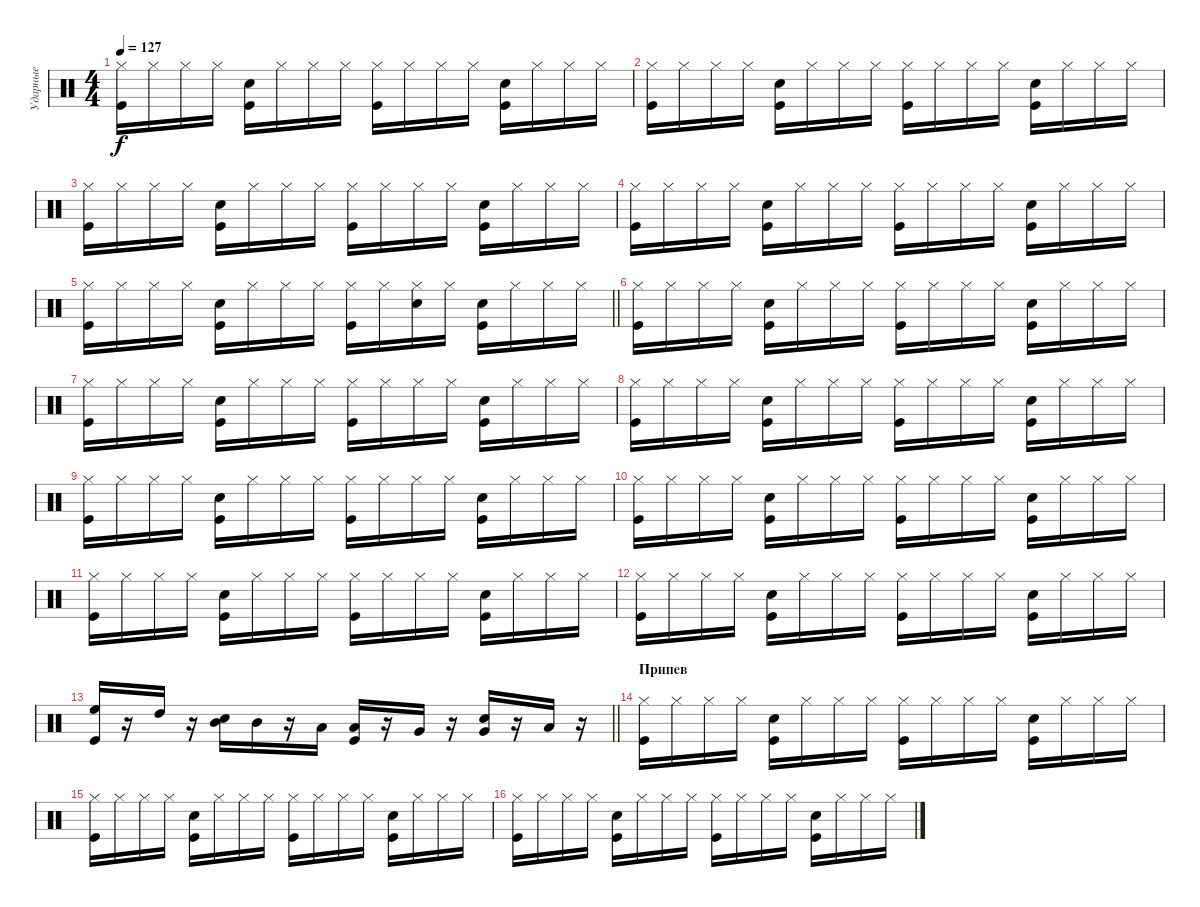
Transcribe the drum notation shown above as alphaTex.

\track ("Ударные" "Ударные") {solo instrument percussion}
\staff {score}
\articulation defaults
\ts (4 4)
\tempo 127
\clef neutral
\ks c
("Hi-Hat (closed)" "Kick (hit)").16{dy f} "Hi-Hat (closed)".16 "Hi-Hat (closed)".16 "Hi-Hat (closed)".16 ("Kick (hit)" "Snare (hit) 2").16 "Hi-Hat (closed)".16 "Hi-Hat (closed)".16 "Hi-Hat (closed)".16 ("Hi-Hat (closed)" "Kick (hit)").16 "Hi-Hat (closed)".16 "Hi-Hat (closed)".16 "Hi-Hat (closed)".16 ("Kick (hit)" "Snare (hit) 2").16 "Hi-Hat (closed)".16 "Hi-Hat (closed)".16 "Hi-Hat (closed)".16 |
("Hi-Hat (closed)" "Kick (hit)").16 "Hi-Hat (closed)".16 "Hi-Hat (closed)".16 "Hi-Hat (closed)".16 ("Kick (hit)" "Snare (hit) 2").16 "Hi-Hat (closed)".16 "Hi-Hat (closed)".16 "Hi-Hat (closed)".16 ("Hi-Hat (closed)" "Kick (hit)").16 "Hi-Hat (closed)".16 "Hi-Hat (closed)".16 "Hi-Hat (closed)".16 ("Kick (hit)" "Snare (hit) 2").16 "Hi-Hat (closed)".16 "Hi-Hat (closed)".16 "Hi-Hat (closed)".16 |
("Hi-Hat (closed)" "Kick (hit)").16 "Hi-Hat (closed)".16 "Hi-Hat (closed)".16 "Hi-Hat (closed)".16 ("Kick (hit)" "Snare (hit) 2").16 "Hi-Hat (closed)".16 "Hi-Hat (closed)".16 "Hi-Hat (closed)".16 ("Hi-Hat (closed)" "Kick (hit)").16 "Hi-Hat (closed)".16 "Hi-Hat (closed)".16 "Hi-Hat (closed)".16 ("Kick (hit)" "Snare (hit) 2").16 "Hi-Hat (closed)".16 "Hi-Hat (closed)".16 "Hi-Hat (closed)".16 |
("Hi-Hat (closed)" "Kick (hit)").16 "Hi-Hat (closed)".16 "Hi-Hat (closed)".16 "Hi-Hat (closed)".16 ("Kick (hit)" "Snare (hit) 2").16 "Hi-Hat (closed)".16 "Hi-Hat (closed)".16 "Hi-Hat (closed)".16 ("Hi-Hat (closed)" "Kick (hit)").16 "Hi-Hat (closed)".16 "Hi-Hat (closed)".16 "Hi-Hat (closed)".16 ("Kick (hit)" "Snare (hit) 2").16 "Hi-Hat (closed)".16 "Hi-Hat (closed)".16 "Hi-Hat (closed)".16 |
\barLineRight lightlight
("Hi-Hat (closed)" "Kick (hit)").16 "Hi-Hat (closed)".16 "Hi-Hat (closed)".16 "Hi-Hat (closed)".16 ("Kick (hit)" "Snare (hit) 2").16 "Hi-Hat (closed)".16 "Hi-Hat (closed)".16 "Hi-Hat (closed)".16 ("Hi-Hat (closed)" "Kick (hit)").16 "Hi-Hat (closed)".16 ("Hi-Hat (closed)" "Snare (hit) 2").16 "Hi-Hat (closed)".16 ("Kick (hit)" "Snare (hit) 2").16 "Hi-Hat (closed)".16 "Hi-Hat (closed)".16 "Hi-Hat (closed)".16 |
\section ("" "")
("Hi-Hat (closed)" "Kick (hit)").16 "Hi-Hat (closed)".16 "Hi-Hat (closed)".16 "Hi-Hat (closed)".16 ("Kick (hit)" "Snare (hit) 2").16 "Hi-Hat (closed)".16 "Hi-Hat (closed)".16 "Hi-Hat (closed)".16 ("Hi-Hat (closed)" "Kick (hit)").16 "Hi-Hat (closed)".16 "Hi-Hat (closed)".16 "Hi-Hat (closed)".16 ("Kick (hit)" "Snare (hit) 2").16 "Hi-Hat (closed)".16 "Hi-Hat (closed)".16 "Hi-Hat (closed)".16 |
("Hi-Hat (closed)" "Kick (hit)").16 "Hi-Hat (closed)".16 "Hi-Hat (closed)".16 "Hi-Hat (closed)".16 ("Kick (hit)" "Snare (hit) 2").16 "Hi-Hat (closed)".16 "Hi-Hat (closed)".16 "Hi-Hat (closed)".16 ("Hi-Hat (closed)" "Kick (hit)").16 "Hi-Hat (closed)".16 "Hi-Hat (closed)".16 "Hi-Hat (closed)".16 ("Kick (hit)" "Snare (hit) 2").16 "Hi-Hat (closed)".16 "Hi-Hat (closed)".16 "Hi-Hat (closed)".16 |
("Hi-Hat (closed)" "Kick (hit)").16 "Hi-Hat (closed)".16 "Hi-Hat (closed)".16 "Hi-Hat (closed)".16 ("Kick (hit)" "Snare (hit) 2").16 "Hi-Hat (closed)".16 "Hi-Hat (closed)".16 "Hi-Hat (closed)".16 ("Hi-Hat (closed)" "Kick (hit)").16 "Hi-Hat (closed)".16 "Hi-Hat (closed)".16 "Hi-Hat (closed)".16 ("Kick (hit)" "Snare (hit) 2").16 "Hi-Hat (closed)".16 "Hi-Hat (closed)".16 "Hi-Hat (closed)".16 |
("Hi-Hat (closed)" "Kick (hit)").16 "Hi-Hat (closed)".16 "Hi-Hat (closed)".16 "Hi-Hat (closed)".16 ("Kick (hit)" "Snare (hit) 2").16 "Hi-Hat (closed)".16 "Hi-Hat (closed)".16 "Hi-Hat (closed)".16 ("Hi-Hat (closed)" "Kick (hit)").16 "Hi-Hat (closed)".16 "Hi-Hat (closed)".16 "Hi-Hat (closed)".16 ("Kick (hit)" "Snare (hit) 2").16 "Hi-Hat (closed)".16 "Hi-Hat (closed)".16 "Hi-Hat (closed)".16 |
("Hi-Hat (closed)" "Kick (hit)").16 "Hi-Hat (closed)".16 "Hi-Hat (closed)".16 "Hi-Hat (closed)".16 ("Kick (hit)" "Snare (hit) 2").16 "Hi-Hat (closed)".16 "Hi-Hat (closed)".16 "Hi-Hat (closed)".16 ("Hi-Hat (closed)" "Kick (hit)").16 "Hi-Hat (closed)".16 "Hi-Hat (closed)".16 "Hi-Hat (closed)".16 ("Kick (hit)" "Snare (hit) 2").16 "Hi-Hat (closed)".16 "Hi-Hat (closed)".16 "Hi-Hat (closed)".16 |
("Hi-Hat (closed)" "Kick (hit)").16 "Hi-Hat (closed)".16 "Hi-Hat (closed)".16 "Hi-Hat (closed)".16 ("Kick (hit)" "Snare (hit) 2").16 "Hi-Hat (closed)".16 "Hi-Hat (closed)".16 "Hi-Hat (closed)".16 ("Hi-Hat (closed)" "Kick (hit)").16 "Hi-Hat (closed)".16 "Hi-Hat (closed)".16 "Hi-Hat (closed)".16 ("Kick (hit)" "Snare (hit) 2").16 "Hi-Hat (closed)".16 "Hi-Hat (closed)".16 "Hi-Hat (closed)".16 |
("Hi-Hat (closed)" "Kick (hit)").16 "Hi-Hat (closed)".16 "Hi-Hat (closed)".16 "Hi-Hat (closed)".16 ("Kick (hit)" "Snare (hit) 2").16 "Hi-Hat (closed)".16 "Hi-Hat (closed)".16 "Hi-Hat (closed)".16 ("Hi-Hat (closed)" "Kick (hit)").16 "Hi-Hat (closed)".16 "Hi-Hat (closed)".16 "Hi-Hat (closed)".16 ("Kick (hit)" "Snare (hit) 2").16 "Hi-Hat (closed)".16 "Hi-Hat (closed)".16 "Hi-Hat (closed)".16 |
\barLineRight lightlight
("Kick (hit)" "High Floor Tom (hit)").16 r.16 "High Tom (hit)".16 r.16 ("Snare (hit) 2" "Mid Tom (hit)").16 "Mid Tom (hit)".16 r.16 "Low Tom (hit)".16 ("Kick (hit)" "Low Tom (hit)").16 r.16 "Very Low Tom (hit)".16 r.16 ("Very Low Tom (hit)" "Snare (hit) 2").16 r.16 "Low Floor Tom (hit)".16 r.16 |
\section ("" "Припев")
("Hi-Hat (closed)" "Kick (hit)").16 "Hi-Hat (closed)".16 "Hi-Hat (closed)".16 "Hi-Hat (closed)".16 ("Kick (hit)" "Snare (hit) 2").16 "Hi-Hat (closed)".16 "Hi-Hat (closed)".16 "Hi-Hat (closed)".16 ("Hi-Hat (closed)" "Kick (hit)").16 "Hi-Hat (closed)".16 "Hi-Hat (closed)".16 "Hi-Hat (closed)".16 ("Kick (hit)" "Snare (hit) 2").16 "Hi-Hat (closed)".16 "Hi-Hat (closed)".16 "Hi-Hat (closed)".16 |
("Hi-Hat (closed)" "Kick (hit)").16 "Hi-Hat (closed)".16 "Hi-Hat (closed)".16 "Hi-Hat (closed)".16 ("Kick (hit)" "Snare (hit) 2").16 "Hi-Hat (closed)".16 "Hi-Hat (closed)".16 "Hi-Hat (closed)".16 ("Hi-Hat (closed)" "Kick (hit)").16 "Hi-Hat (closed)".16 "Hi-Hat (closed)".16 "Hi-Hat (closed)".16 ("Kick (hit)" "Snare (hit) 2").16 "Hi-Hat (closed)".16 "Hi-Hat (closed)".16 "Hi-Hat (closed)".16 |
("Hi-Hat (closed)" "Kick (hit)").16 "Hi-Hat (closed)".16 "Hi-Hat (closed)".16 "Hi-Hat (closed)".16 ("Kick (hit)" "Snare (hit) 2").16 "Hi-Hat (closed)".16 "Hi-Hat (closed)".16 "Hi-Hat (closed)".16 ("Hi-Hat (closed)" "Kick (hit)").16 "Hi-Hat (closed)".16 "Hi-Hat (closed)".16 "Hi-Hat (closed)".16 ("Kick (hit)" "Snare (hit) 2").16 "Hi-Hat (closed)".16 "Hi-Hat (closed)".16 "Hi-Hat (closed)".16
